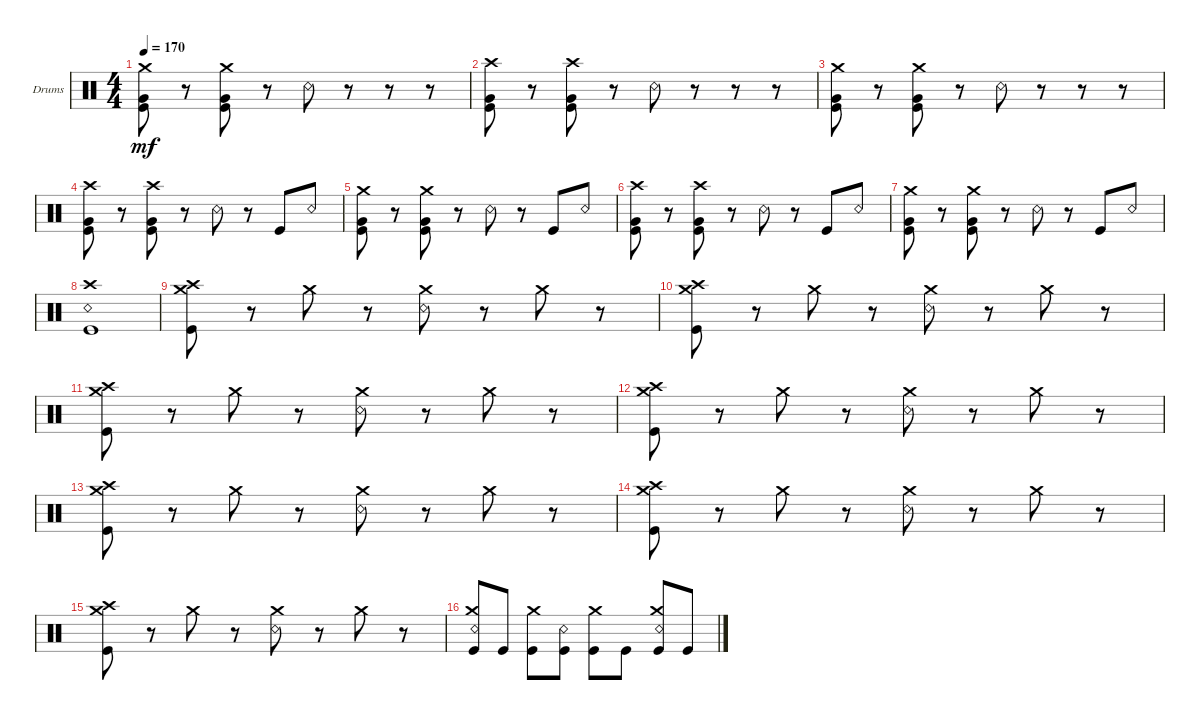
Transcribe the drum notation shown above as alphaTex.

\defaultSystemsLayout 4
\bracketExtendMode groupsimilarinstruments
\firstSystemTrackNameOrientation horizontal
\otherSystemsTrackNameOrientation horizontal
\track ("Drumkit" "Drums") {instrument percussion}
\staff {score}
\articulation defaults
\ts (4 4)
\tempo 170
\clef neutral
\ks c
("Kick (hit)" "Very Low Tom (hit)" "Crash medium (hit)").8{dy mf} r.8 ("Kick (hit)" "Very Low Tom (hit)" "Crash medium (hit)").8 r.8 "Snare (rim shot)".8 r.8 r.8 r.8 |
("Kick (hit)" "Very Low Tom (hit)" "Crash high (hit)").8 r.8 ("Kick (hit)" "Very Low Tom (hit)" "Crash high (hit)").8 r.8 "Snare (rim shot)".8 r.8 r.8 r.8 |
("Kick (hit)" "Very Low Tom (hit)" "Crash medium (hit)").8 r.8 ("Kick (hit)" "Very Low Tom (hit)" "Crash medium (hit)").8 r.8 "Snare (rim shot)".8 r.8 r.8 r.8 |
("Kick (hit)" "Very Low Tom (hit)" "Crash high (hit)").8 r.8 ("Kick (hit)" "Very Low Tom (hit)" "Crash high (hit)").8 r.8 "Snare (rim shot)".8 r.8 "Kick (hit)".8 "Snare (rim shot)".8 |
("Kick (hit)" "Very Low Tom (hit)" "Crash medium (hit)").8 r.8 ("Kick (hit)" "Very Low Tom (hit)" "Crash medium (hit)").8 r.8 "Snare (rim shot)".8 r.8 "Kick (hit)".8 "Snare (rim shot)".8 |
("Kick (hit)" "Very Low Tom (hit)" "Crash high (hit)").8 r.8 ("Kick (hit)" "Very Low Tom (hit)" "Crash high (hit)").8 r.8 "Snare (rim shot)".8 r.8 "Kick (hit)".8 "Snare (rim shot)".8 |
("Kick (hit)" "Very Low Tom (hit)" "Crash medium (hit)").8 r.8 ("Kick (hit)" "Very Low Tom (hit)" "Crash medium (hit)").8 r.8 "Snare (rim shot)".8 r.8 "Kick (hit)".8 "Snare (rim shot)".8 |
("Kick (hit)" "Snare (rim shot)" "Crash high (hit)").1 |
("Kick (hit)" "Crash medium (hit)" "Crash high (hit)").8 r.8 "Crash medium (hit)".8 r.8 ("Snare (rim shot)" "Crash medium (hit)").8 r.8 "Crash medium (hit)".8 r.8 |
("Kick (hit)" "Crash medium (hit)" "Crash high (hit)").8 r.8 "Crash medium (hit)".8 r.8 ("Snare (rim shot)" "Crash medium (hit)").8 r.8 "Crash medium (hit)".8 r.8 |
("Kick (hit)" "Crash medium (hit)" "Crash high (hit)").8 r.8 "Crash medium (hit)".8 r.8 ("Snare (rim shot)" "Crash medium (hit)").8 r.8 "Crash medium (hit)".8 r.8 |
("Kick (hit)" "Crash medium (hit)" "Crash high (hit)").8 r.8 "Crash medium (hit)".8 r.8 ("Snare (rim shot)" "Crash medium (hit)").8 r.8 "Crash medium (hit)".8 r.8 |
("Kick (hit)" "Crash medium (hit)" "Crash high (hit)").8 r.8 "Crash medium (hit)".8 r.8 ("Snare (rim shot)" "Crash medium (hit)").8 r.8 "Crash medium (hit)".8 r.8 |
("Kick (hit)" "Crash medium (hit)" "Crash high (hit)").8 r.8 "Crash medium (hit)".8 r.8 ("Snare (rim shot)" "Crash medium (hit)").8 r.8 "Crash medium (hit)".8 r.8 |
("Kick (hit)" "Crash medium (hit)" "Crash high (hit)").8 r.8 "Crash medium (hit)".8 r.8 ("Snare (rim shot)" "Crash medium (hit)").8 r.8 "Crash medium (hit)".8 r.8 |
("Kick (hit)" "Crash medium (hit)" "Snare (rim shot)").8 "Kick (hit)".8 ("Kick (hit)" "Crash medium (hit)").8 ("Kick (hit)" "Snare (rim shot)").8 ("Crash medium (hit)" "Kick (hit)").8 "Kick (hit)".8 ("Crash medium (hit)" "Kick (hit)" "Snare (rim shot)").8 "Kick (hit)".8
